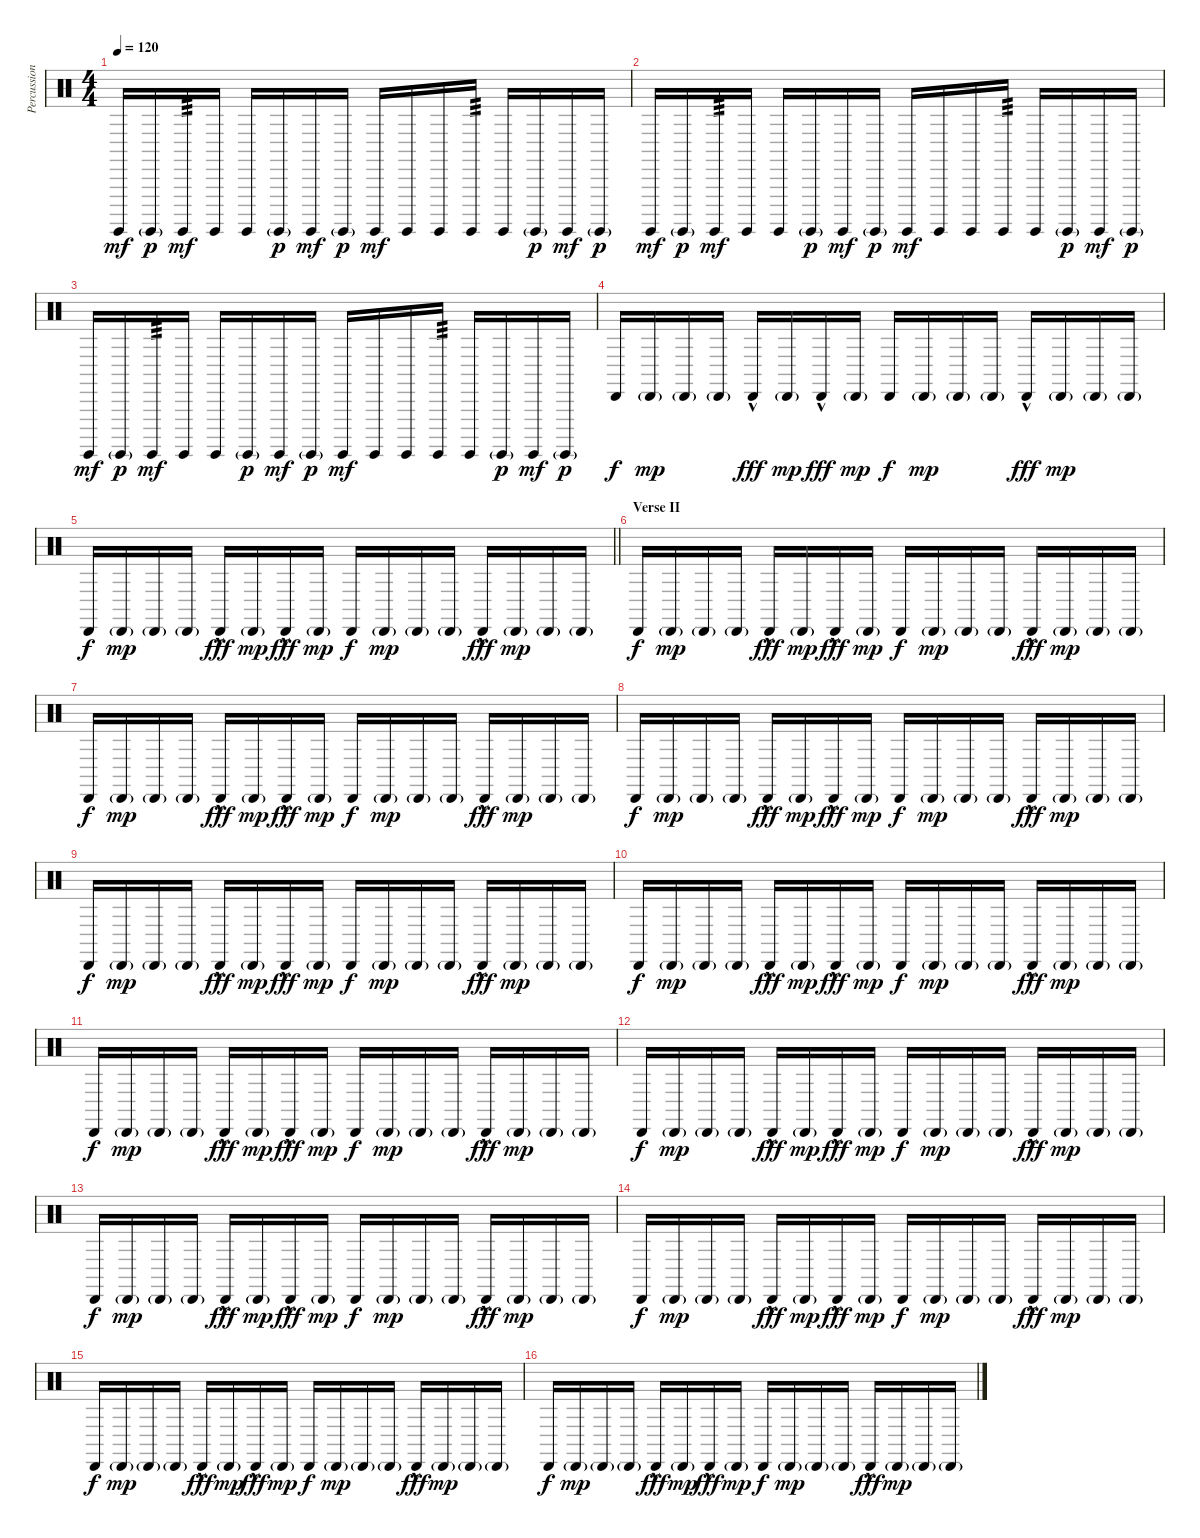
\track ("Percussions" "Percussion") {instrument percussion}
\staff {score}
\articulation defaults
\ts (4 4)
\tempo 120
\clef neutral
\ks c "Surdo (hit)".16{dy mf} "Surdo (hit)"{g}.16{dy p} "Surdo (hit)".16{tp 3 dy mf} "Surdo (hit)".16 "Surdo (hit)".16 "Surdo (hit)"{g}.16{dy p} "Surdo (hit)".16{dy mf} "Surdo (hit)"{g}.16{dy p} "Surdo (hit)".16{dy mf} "Surdo (hit)".16 "Surdo (hit)".16 "Surdo (hit)".16{tp 3} "Surdo (hit)".16 "Surdo (hit)"{g}.16{dy p} "Surdo (hit)".16{dy mf} "Surdo (hit)"{g}.16{dy p}
|
"Surdo (hit)".16{dy mf} "Surdo (hit)"{g}.16{dy p} "Surdo (hit)".16{tp 3 dy mf} "Surdo (hit)".16 "Surdo (hit)".16 "Surdo (hit)"{g}.16{dy p} "Surdo (hit)".16{dy mf} "Surdo (hit)"{g}.16{dy p} "Surdo (hit)".16{dy mf} "Surdo (hit)".16 "Surdo (hit)".16 "Surdo (hit)".16{tp 3} "Surdo (hit)".16 "Surdo (hit)"{g}.16{dy p} "Surdo (hit)".16{dy mf} "Surdo (hit)"{g}.16{dy p} |
"Surdo (hit)".16{dy mf} "Surdo (hit)"{g}.16{dy p} "Surdo (hit)".16{tp 3 dy mf} "Surdo (hit)".16 "Surdo (hit)".16 "Surdo (hit)"{g}.16{dy p} "Surdo (hit)".16{dy mf} "Surdo (hit)"{g}.16{dy p} "Surdo (hit)".16{dy mf} "Surdo (hit)".16 "Surdo (hit)".16 "Surdo (hit)".16{tp 3} "Surdo (hit)".16 "Surdo (hit)"{g}.16{dy p} "Surdo (hit)".16{dy mf} "Surdo (hit)"{g}.16{dy p} |
"Cabasa (hit)".16{dy f} "Cabasa (hit)"{g}.16{dy mp} "Cabasa (hit)"{g}.16 "Cabasa (hit)"{g}.16 "Cabasa (hit)"{hac}.16{dy fff} "Cabasa (hit)"{g}.16{dy mp} "Cabasa (hit)"{hac}.16{dy fff} "Cabasa (hit)"{g}.16{dy mp} "Cabasa (hit)".16{dy f} "Cabasa (hit)"{g}.16{dy mp} "Cabasa (hit)"{g}.16 "Cabasa (hit)"{g}.16 "Cabasa (hit)"{hac}.16{dy fff} "Cabasa (hit)"{g}.16{dy mp} "Cabasa (hit)"{g}.16 "Cabasa (hit)"{g}.16 |
\barLineRight lightlight "Cabasa (hit)".16{dy f} "Cabasa (hit)"{g}.16{dy mp} "Cabasa (hit)"{g}.16 "Cabasa (hit)"{g}.16 "Cabasa (hit)"{hac}.16{dy fff} "Cabasa (hit)"{g}.16{dy mp} "Cabasa (hit)"{hac}.16{dy fff} "Cabasa (hit)"{g}.16{dy mp} "Cabasa (hit)".16{dy f} "Cabasa (hit)"{g}.16{dy mp} "Cabasa (hit)"{g}.16 "Cabasa (hit)"{g}.16 "Cabasa (hit)"{hac}.16{dy fff} "Cabasa (hit)"{g}.16{dy mp} "Cabasa (hit)"{g}.16 "Cabasa (hit)"{g}.16
|
\section ("" "Verse II")
"Cabasa (hit)".16{dy f} "Cabasa (hit)"{g}.16{dy mp} "Cabasa (hit)"{g}.16 "Cabasa (hit)"{g}.16 "Cabasa (hit)"{hac}.16{dy fff} "Cabasa (hit)"{g}.16{dy mp} "Cabasa (hit)"{hac}.16{dy fff} "Cabasa (hit)"{g}.16{dy mp} "Cabasa (hit)".16{dy f} "Cabasa (hit)"{g}.16{dy mp} "Cabasa (hit)"{g}.16 "Cabasa (hit)"{g}.16 "Cabasa (hit)"{hac}.16{dy fff} "Cabasa (hit)"{g}.16{dy mp} "Cabasa (hit)"{g}.16 "Cabasa (hit)"{g}.16 |
"Cabasa (hit)".16{dy f} "Cabasa (hit)"{g}.16{dy mp} "Cabasa (hit)"{g}.16 "Cabasa (hit)"{g}.16 "Cabasa (hit)"{hac}.16{dy fff} "Cabasa (hit)"{g}.16{dy mp} "Cabasa (hit)"{hac}.16{dy fff} "Cabasa (hit)"{g}.16{dy mp} "Cabasa (hit)".16{dy f} "Cabasa (hit)"{g}.16{dy mp} "Cabasa (hit)"{g}.16 "Cabasa (hit)"{g}.16 "Cabasa (hit)"{hac}.16{dy fff} "Cabasa (hit)"{g}.16{dy mp} "Cabasa (hit)"{g}.16 "Cabasa (hit)"{g}.16 |
"Cabasa (hit)".16{dy f} "Cabasa (hit)"{g}.16{dy mp} "Cabasa (hit)"{g}.16 "Cabasa (hit)"{g}.16 "Cabasa (hit)"{hac}.16{dy fff} "Cabasa (hit)"{g}.16{dy mp} "Cabasa (hit)"{hac}.16{dy fff} "Cabasa (hit)"{g}.16{dy mp} "Cabasa (hit)".16{dy f} "Cabasa (hit)"{g}.16{dy mp} "Cabasa (hit)"{g}.16 "Cabasa (hit)"{g}.16 "Cabasa (hit)"{hac}.16{dy fff} "Cabasa (hit)"{g}.16{dy mp} "Cabasa (hit)"{g}.16 "Cabasa (hit)"{g}.16 |
"Cabasa (hit)".16{dy f} "Cabasa (hit)"{g}.16{dy mp} "Cabasa (hit)"{g}.16 "Cabasa (hit)"{g}.16 "Cabasa (hit)"{hac}.16{dy fff} "Cabasa (hit)"{g}.16{dy mp} "Cabasa (hit)"{hac}.16{dy fff} "Cabasa (hit)"{g}.16{dy mp} "Cabasa (hit)".16{dy f} "Cabasa (hit)"{g}.16{dy mp} "Cabasa (hit)"{g}.16 "Cabasa (hit)"{g}.16 "Cabasa (hit)"{hac}.16{dy fff} "Cabasa (hit)"{g}.16{dy mp} "Cabasa (hit)"{g}.16 "Cabasa (hit)"{g}.16 |
"Cabasa (hit)".16{dy f} "Cabasa (hit)"{g}.16{dy mp} "Cabasa (hit)"{g}.16 "Cabasa (hit)"{g}.16 "Cabasa (hit)"{hac}.16{dy fff} "Cabasa (hit)"{g}.16{dy mp} "Cabasa (hit)"{hac}.16{dy fff} "Cabasa (hit)"{g}.16{dy mp} "Cabasa (hit)".16{dy f} "Cabasa (hit)"{g}.16{dy mp} "Cabasa (hit)"{g}.16 "Cabasa (hit)"{g}.16 "Cabasa (hit)"{hac}.16{dy fff} "Cabasa (hit)"{g}.16{dy mp} "Cabasa (hit)"{g}.16 "Cabasa (hit)"{g}.16 |
"Cabasa (hit)".16{dy f} "Cabasa (hit)"{g}.16{dy mp} "Cabasa (hit)"{g}.16 "Cabasa (hit)"{g}.16 "Cabasa (hit)"{hac}.16{dy fff} "Cabasa (hit)"{g}.16{dy mp} "Cabasa (hit)"{hac}.16{dy fff} "Cabasa (hit)"{g}.16{dy mp} "Cabasa (hit)".16{dy f} "Cabasa (hit)"{g}.16{dy mp} "Cabasa (hit)"{g}.16 "Cabasa (hit)"{g}.16 "Cabasa (hit)"{hac}.16{dy fff} "Cabasa (hit)"{g}.16{dy mp} "Cabasa (hit)"{g}.16 "Cabasa (hit)"{g}.16 |
"Cabasa (hit)".16{dy f} "Cabasa (hit)"{g}.16{dy mp} "Cabasa (hit)"{g}.16 "Cabasa (hit)"{g}.16 "Cabasa (hit)"{hac}.16{dy fff} "Cabasa (hit)"{g}.16{dy mp} "Cabasa (hit)"{hac}.16{dy fff} "Cabasa (hit)"{g}.16{dy mp} "Cabasa (hit)".16{dy f} "Cabasa (hit)"{g}.16{dy mp} "Cabasa (hit)"{g}.16 "Cabasa (hit)"{g}.16 "Cabasa (hit)"{hac}.16{dy fff} "Cabasa (hit)"{g}.16{dy mp} "Cabasa (hit)"{g}.16 "Cabasa (hit)"{g}.16 |
"Cabasa (hit)".16{dy f} "Cabasa (hit)"{g}.16{dy mp} "Cabasa (hit)"{g}.16 "Cabasa (hit)"{g}.16 "Cabasa (hit)"{hac}.16{dy fff} "Cabasa (hit)"{g}.16{dy mp} "Cabasa (hit)"{hac}.16{dy fff} "Cabasa (hit)"{g}.16{dy mp} "Cabasa (hit)".16{dy f} "Cabasa (hit)"{g}.16{dy mp} "Cabasa (hit)"{g}.16 "Cabasa (hit)"{g}.16 "Cabasa (hit)"{hac}.16{dy fff} "Cabasa (hit)"{g}.16{dy mp} "Cabasa (hit)"{g}.16 "Cabasa (hit)"{g}.16 |
"Cabasa (hit)".16{dy f} "Cabasa (hit)"{g}.16{dy mp} "Cabasa (hit)"{g}.16 "Cabasa (hit)"{g}.16 "Cabasa (hit)"{hac}.16{dy fff} "Cabasa (hit)"{g}.16{dy mp} "Cabasa (hit)"{hac}.16{dy fff} "Cabasa (hit)"{g}.16{dy mp} "Cabasa (hit)".16{dy f} "Cabasa (hit)"{g}.16{dy mp} "Cabasa (hit)"{g}.16 "Cabasa (hit)"{g}.16 "Cabasa (hit)"{hac}.16{dy fff} "Cabasa (hit)"{g}.16{dy mp} "Cabasa (hit)"{g}.16 "Cabasa (hit)"{g}.16 |
"Cabasa (hit)".16{dy f} "Cabasa (hit)"{g}.16{dy mp} "Cabasa (hit)"{g}.16 "Cabasa (hit)"{g}.16 "Cabasa (hit)"{hac}.16{dy fff} "Cabasa (hit)"{g}.16{dy mp} "Cabasa (hit)"{hac}.16{dy fff} "Cabasa (hit)"{g}.16{dy mp} "Cabasa (hit)".16{dy f} "Cabasa (hit)"{g}.16{dy mp} "Cabasa (hit)"{g}.16 "Cabasa (hit)"{g}.16 "Cabasa (hit)"{hac}.16{dy fff} "Cabasa (hit)"{g}.16{dy mp} "Cabasa (hit)"{g}.16 "Cabasa (hit)"{g}.16 |
"Cabasa (hit)".16{dy f} "Cabasa (hit)"{g}.16{dy mp} "Cabasa (hit)"{g}.16 "Cabasa (hit)"{g}.16 "Cabasa (hit)"{hac}.16{dy fff} "Cabasa (hit)"{g}.16{dy mp} "Cabasa (hit)"{hac}.16{dy fff} "Cabasa (hit)"{g}.16{dy mp} "Cabasa (hit)".16{dy f} "Cabasa (hit)"{g}.16{dy mp} "Cabasa (hit)"{g}.16 "Cabasa (hit)"{g}.16 "Cabasa (hit)"{hac}.16{dy fff} "Cabasa (hit)"{g}.16{dy mp} "Cabasa (hit)"{g}.16 "Cabasa (hit)"{g}.16
